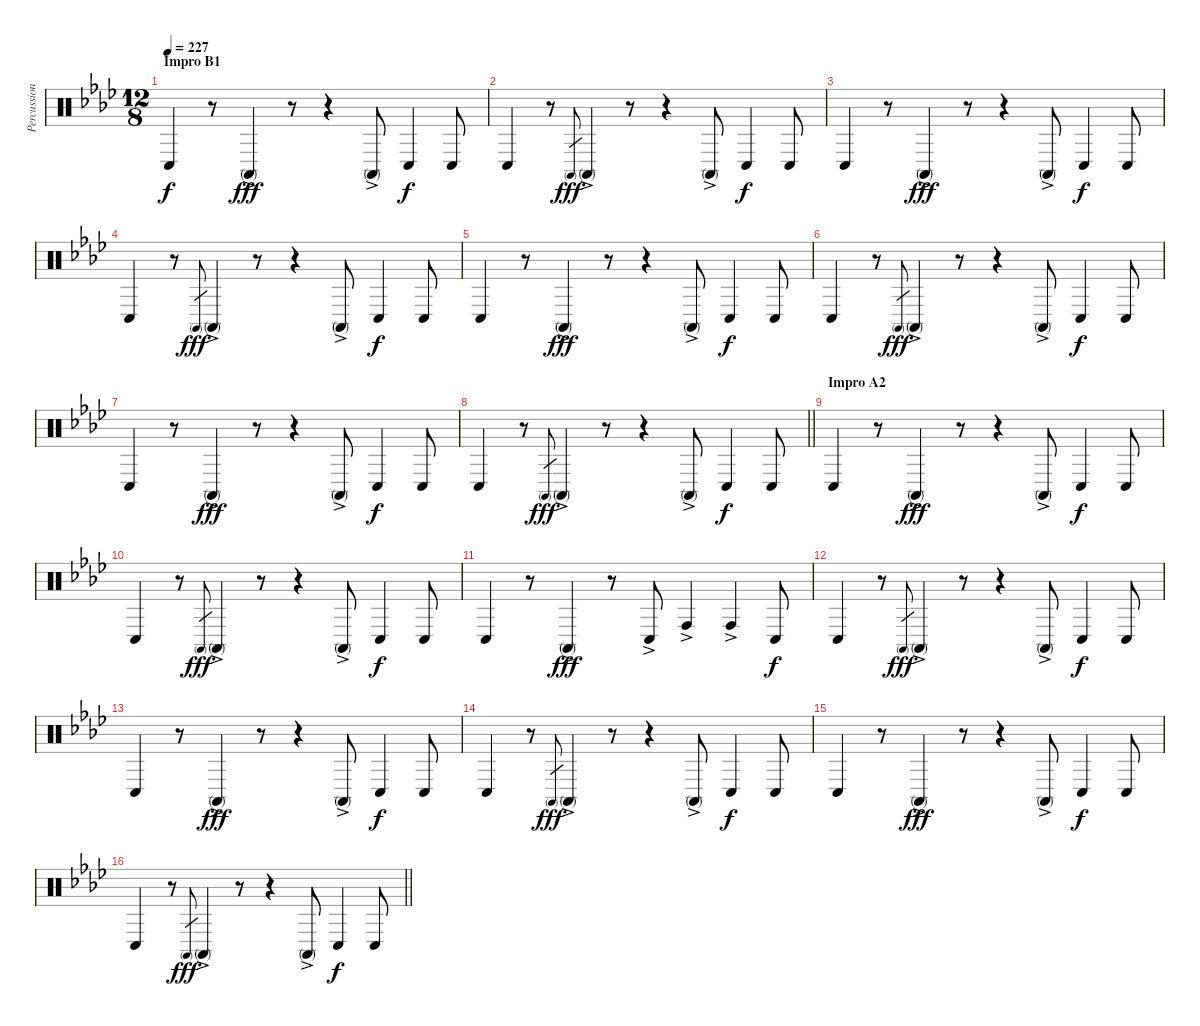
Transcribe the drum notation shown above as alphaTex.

\track ("Percussions" "Percussion") {instrument percussion}
\staff {score}
\articulation defaults
\ts (12 8)
\section ("" "Impro B1")
\tempo 227
\clef neutral
\ks fminor "Conga low (hit)".4{dy f volume 12 balance 8}
r.8 "Conga high (mute)"{ac}.4{dy fff} r.8 r.4 "Conga high (mute)"{ac}.8 "Conga low (hit)".4{dy f} "Conga low (hit)".8 |
"Conga low (hit)".4 r.8 "Conga high (mute)".8{gr dy fff} "Conga high (mute)"{ac}.4 r.8 r.4 "Conga high (mute)"{ac}.8 "Conga low (hit)".4{dy f} "Conga low (hit)".8 |
"Conga low (hit)".4 r.8 "Conga high (mute)"{ac}.4{dy fff} r.8 r.4 "Conga high (mute)"{ac}.8 "Conga low (hit)".4{dy f} "Conga low (hit)".8 |
"Conga low (hit)".4 r.8 "Conga high (mute)".8{gr dy fff} "Conga high (mute)"{ac}.4 r.8 r.4 "Conga high (mute)"{ac}.8 "Conga low (hit)".4{dy f} "Conga low (hit)".8 |
"Conga low (hit)".4 r.8 "Conga high (mute)"{ac}.4{dy fff} r.8 r.4 "Conga high (mute)"{ac}.8 "Conga low (hit)".4{dy f} "Conga low (hit)".8 |
"Conga low (hit)".4 r.8 "Conga high (mute)".8{gr dy fff} "Conga high (mute)"{ac}.4 r.8 r.4 "Conga high (mute)"{ac}.8 "Conga low (hit)".4{dy f} "Conga low (hit)".8 |
"Conga low (hit)".4 r.8 "Conga high (mute)"{ac}.4{dy fff} r.8 r.4 "Conga high (mute)"{ac}.8 "Conga low (hit)".4{dy f} "Conga low (hit)".8 |
\barLineRight lightlight "Conga low (hit)".4
r.8 "Conga high (mute)".8{gr dy fff} "Conga high (mute)"{ac}.4 r.8 r.4 "Conga high (mute)"{ac}.8 "Conga low (hit)".4{dy f} "Conga low (hit)".8 |
\section ("" "Impro A2")
"Conga low (hit)".4{volume 11 balance 8} r.8 "Conga high (mute)"{ac}.4{dy fff} r.8 r.4 "Conga high (mute)"{ac}.8 "Conga low (hit)".4{dy f} "Conga low (hit)".8 |
"Conga low (hit)".4 r.8 "Conga high (mute)".8{gr dy fff} "Conga high (mute)"{ac}.4 r.8 r.4 "Conga high (mute)"{ac}.8 "Conga low (hit)".4{dy f} "Conga low (hit)".8 |
"Conga low (hit)".4 r.8 "Conga high (mute)"{ac}.4{dy fff} r.8 "Conga low (hit)"{ac}.8 "Conga high (hit)"{ac}.4 "Conga high (hit)"{ac}.4 "Conga low (hit)".8{dy f} |
"Conga low (hit)".4 r.8 "Conga high (mute)".8{gr dy fff} "Conga high (mute)"{ac}.4 r.8 r.4 "Conga high (mute)"{ac}.8 "Conga low (hit)".4{dy f} "Conga low (hit)".8 |
"Conga low (hit)".4 r.8 "Conga high (mute)"{ac}.4{dy fff} r.8 r.4 "Conga high (mute)"{ac}.8 "Conga low (hit)".4{dy f} "Conga low (hit)".8 |
"Conga low (hit)".4 r.8 "Conga high (mute)".8{gr dy fff} "Conga high (mute)"{ac}.4 r.8 r.4 "Conga high (mute)"{ac}.8 "Conga low (hit)".4{dy f} "Conga low (hit)".8 |
"Conga low (hit)".4 r.8 "Conga high (mute)"{ac}.4{dy fff} r.8 r.4 "Conga high (mute)"{ac}.8 "Conga low (hit)".4{dy f} "Conga low (hit)".8 |
\barLineRight lightlight "Conga low (hit)".4
r.8 "Conga high (mute)".8{gr dy fff} "Conga high (mute)"{ac}.4 r.8 r.4 "Conga high (mute)"{ac}.8 "Conga low (hit)".4{dy f} "Conga low (hit)".8
